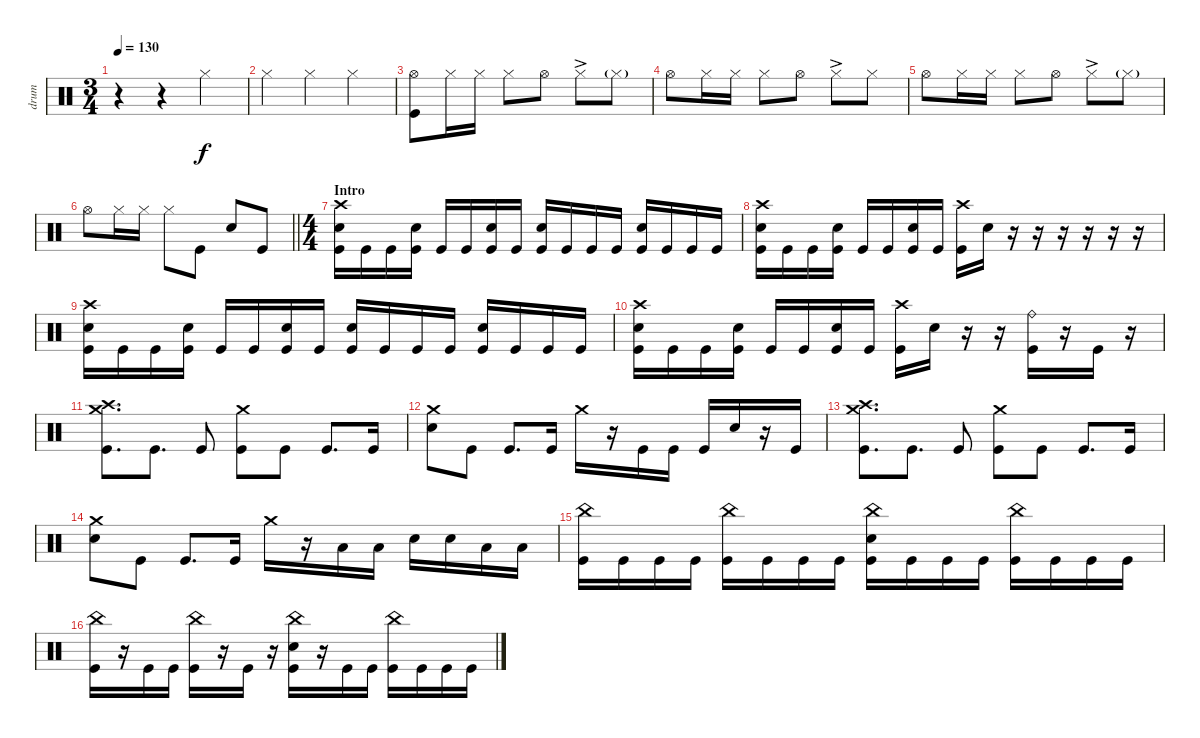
\track ("drum" "drum") {instrument percussion}
\staff {score}
\articulation defaults
\ts (3 4)
\tempo 130
\clef neutral
\ks c
r.4{dy f} r.4 "Hi-Hat (closed)".4 |
"Hi-Hat (closed)".4 "Hi-Hat (closed)".4 "Hi-Hat (closed)".4 |
("Hi-Hat (open)" "Kick (hit)").8 "Hi-Hat (closed)".16 "Hi-Hat (closed)".16 "Hi-Hat (closed)".8 "Hi-Hat (open)".8 "Hi-Hat (closed)"{ac}.8 "Hi-Hat (closed)"{g}.8 |
"Hi-Hat (open)".8 "Hi-Hat (closed)".16 "Hi-Hat (closed)".16 "Hi-Hat (closed)".8 "Hi-Hat (open)".8 "Hi-Hat (closed)"{ac}.8 "Hi-Hat (closed)".8 |
"Hi-Hat (open)".8 "Hi-Hat (closed)".16 "Hi-Hat (closed)".16 "Hi-Hat (closed)".8 "Hi-Hat (open)".8 "Hi-Hat (closed)"{ac}.8 "Hi-Hat (closed)"{g}.8 |
\barLineRight lightlight "Hi-Hat (open)".8 "Hi-Hat (closed)".16 "Hi-Hat (closed)".16 "Hi-Hat (closed)".8 "Kick (hit)".8 "Snare (hit) 2".8 "Kick (hit)".8
|
\ts (4 4)
\section ("" "Intro")
("Crash high (hit)" "Kick (hit)" "Snare (hit) 2").16 "Kick (hit)".16 "Kick (hit)".16 ("Kick (hit)" "Snare (hit) 2").16 "Kick (hit)".16 "Kick (hit)".16 ("Kick (hit)" "Snare (hit) 2").16 "Kick (hit)".16 ("Snare (hit) 2" "Kick (hit)").16 "Kick (hit)".16 "Kick (hit)".16 "Kick (hit)".16 ("Kick (hit)" "Snare (hit) 2").16 "Kick (hit)".16 "Kick (hit)".16 "Kick (hit)".16 |
("Crash high (hit)" "Kick (hit)" "Snare (hit) 2").16 "Kick (hit)".16 "Kick (hit)".16 ("Kick (hit)" "Snare (hit) 2").16 "Kick (hit)".16 "Kick (hit)".16 ("Kick (hit)" "Snare (hit) 2").16 "Kick (hit)".16 ("Crash high (hit)" "Kick (hit)").16 "Snare (hit) 2".16 r.16 r.16 r.16 r.16 r.16 r.16 |
("Crash high (hit)" "Kick (hit)" "Snare (hit) 2").16 "Kick (hit)".16 "Kick (hit)".16 ("Kick (hit)" "Snare (hit) 2").16 "Kick (hit)".16 "Kick (hit)".16 ("Kick (hit)" "Snare (hit) 2").16 "Kick (hit)".16 ("Snare (hit) 2" "Kick (hit)").16 "Kick (hit)".16 "Kick (hit)".16 "Kick (hit)".16 ("Kick (hit)" "Snare (hit) 2").16 "Kick (hit)".16 "Kick (hit)".16 "Kick (hit)".16 |
("Crash high (hit)" "Kick (hit)" "Snare (hit) 2").16 "Kick (hit)".16 "Kick (hit)".16 ("Kick (hit)" "Snare (hit) 2").16 "Kick (hit)".16 "Kick (hit)".16 ("Kick (hit)" "Snare (hit) 2").16 "Kick (hit)".16 ("Crash high (hit)" "Kick (hit)").16 "Snare (hit) 2".16 r.16 r.16 ("Ride (bell)" "Kick (hit)").16 r.16 "Kick (hit)".16 r.16 |
("Crash high (hit)" "Crash medium (hit)" "Kick (hit)").8{d} "Kick (hit)".8{d} "Kick (hit)".8 ("Crash medium (hit)" "Kick (hit)").8 "Kick (hit)".8 "Kick (hit)".8{d} "Kick (hit)".16 |
("Crash medium (hit)" "Snare (hit) 2").8 "Kick (hit)".8 "Kick (hit)".8{d} "Kick (hit)".16 "Crash medium (hit)".16 r.16 "Kick (hit)".16 "Kick (hit)".16 "Kick (hit)".16 "Snare (hit) 2".16 r.16 "Kick (hit)".16 |
("Crash medium (hit)" "Crash high (hit)" "Kick (hit)").8{d} "Kick (hit)".8{d} "Kick (hit)".8 ("Crash medium (hit)" "Kick (hit)").8 "Kick (hit)".8 "Kick (hit)".8{d} "Kick (hit)".16 |
("Crash medium (hit)" "Snare (hit) 2").8 "Kick (hit)".8 "Kick (hit)".8{d} "Kick (hit)".16 "Crash medium (hit)".16 r.16 "Low Tom (hit)".16 "Low Tom (hit)".16 "Snare (hit) 2".16 "Snare (hit) 2".16 "Low Tom (hit)".16 "Low Tom (hit)".16 |
("China (hit)" "Kick (hit)").16 "Kick (hit)".16 "Kick (hit)".16 "Kick (hit)".16 ("China (hit)" "Kick (hit)").16 "Kick (hit)".16 "Kick (hit)".16 "Kick (hit)".16 ("China (hit)" "Snare (hit) 2" "Kick (hit)").16 "Kick (hit)".16 "Kick (hit)".16 "Kick (hit)".16 ("China (hit)" "Kick (hit)").16 "Kick (hit)".16 "Kick (hit)".16 "Kick (hit)".16 |
("China (hit)" "Kick (hit)").16 r.16 "Kick (hit)".16 "Kick (hit)".16 ("China (hit)" "Kick (hit)").16 r.16 "Kick (hit)".16 r.16 ("China (hit)" "Snare (hit) 2" "Kick (hit)").16 r.16 "Kick (hit)".16 "Kick (hit)".16 ("China (hit)" "Kick (hit)").16 "Kick (hit)".16 "Kick (hit)".16 "Kick (hit)".16
